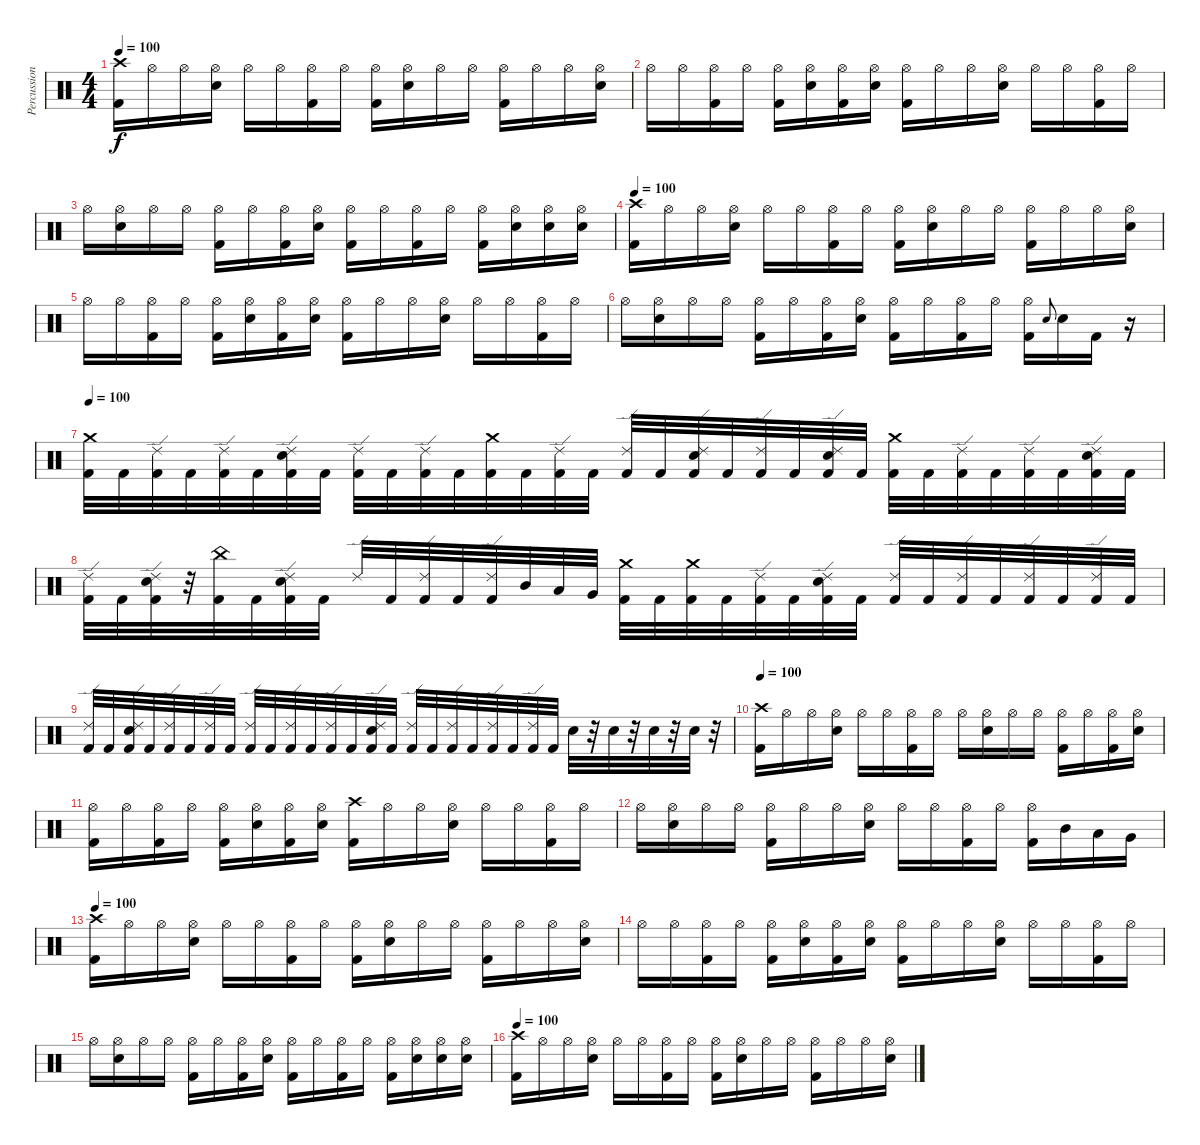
\track ("Percussion" "Percussion") {instrument percussion}
\staff {score}
\articulation defaults
\ts (4 4)
\tempo 100
\clef neutral
\ks c
("Crash high (hit)" "Kick (hit) 2").16{dy f} "Hi-Hat (open)".16 "Hi-Hat (open)".16 ("Hi-Hat (open)" "Snare (hit) 2").16 "Hi-Hat (open)".16 "Hi-Hat (open)".16 ("Hi-Hat (open)" "Kick (hit) 2").16 "Hi-Hat (open)".16 ("Hi-Hat (open)" "Kick (hit) 2").16 ("Hi-Hat (open)" "Snare (hit) 2").16 "Hi-Hat (open)".16 "Hi-Hat (open)".16 ("Hi-Hat (open)" "Kick (hit) 2").16 "Hi-Hat (open)".16 "Hi-Hat (open)".16 ("Hi-Hat (open)" "Snare (hit) 2").16 |
"Hi-Hat (open)".16 "Hi-Hat (open)".16 ("Hi-Hat (open)" "Kick (hit) 2").16 "Hi-Hat (open)".16 ("Hi-Hat (open)" "Kick (hit) 2").16 ("Hi-Hat (open)" "Snare (hit) 2").16 ("Hi-Hat (open)" "Kick (hit) 2").16 ("Hi-Hat (open)" "Snare (hit) 2").16 ("Hi-Hat (open)" "Kick (hit) 2").16 "Hi-Hat (open)".16 "Hi-Hat (open)".16 ("Hi-Hat (open)" "Snare (hit) 2").16 "Hi-Hat (open)".16 "Hi-Hat (open)".16 ("Hi-Hat (open)" "Kick (hit) 2").16 "Hi-Hat (open)".16 |
"Hi-Hat (open)".16 ("Hi-Hat (open)" "Snare (hit) 2").16 "Hi-Hat (open)".16 "Hi-Hat (open)".16 ("Hi-Hat (open)" "Kick (hit) 2").16 "Hi-Hat (open)".16 ("Hi-Hat (open)" "Kick (hit) 2").16 ("Hi-Hat (open)" "Snare (hit) 2").16 ("Hi-Hat (open)" "Kick (hit) 2").16 "Hi-Hat (open)".16 ("Hi-Hat (open)" "Kick (hit) 2").16 "Hi-Hat (open)".16 ("Hi-Hat (open)" "Kick (hit) 2").16 ("Hi-Hat (open)" "Snare (hit) 2").16 ("Hi-Hat (open)" "Snare (hit) 2").16 ("Hi-Hat (open)" "Snare (hit) 2").16 |
\tempo 100
("Crash high (hit)" "Kick (hit) 2").16 "Hi-Hat (open)".16 "Hi-Hat (open)".16 ("Hi-Hat (open)" "Snare (hit) 2").16 "Hi-Hat (open)".16 "Hi-Hat (open)".16 ("Hi-Hat (open)" "Kick (hit) 2").16 "Hi-Hat (open)".16 ("Hi-Hat (open)" "Kick (hit) 2").16 ("Hi-Hat (open)" "Snare (hit) 2").16 "Hi-Hat (open)".16 "Hi-Hat (open)".16 ("Hi-Hat (open)" "Kick (hit) 2").16 "Hi-Hat (open)".16 "Hi-Hat (open)".16 ("Hi-Hat (open)" "Snare (hit) 2").16 |
"Hi-Hat (open)".16 "Hi-Hat (open)".16 ("Hi-Hat (open)" "Kick (hit) 2").16 "Hi-Hat (open)".16 ("Hi-Hat (open)" "Kick (hit) 2").16 ("Hi-Hat (open)" "Snare (hit) 2").16 ("Hi-Hat (open)" "Kick (hit) 2").16 ("Hi-Hat (open)" "Snare (hit) 2").16 ("Hi-Hat (open)" "Kick (hit) 2").16 "Hi-Hat (open)".16 "Hi-Hat (open)".16 ("Hi-Hat (open)" "Snare (hit) 2").16 "Hi-Hat (open)".16 "Hi-Hat (open)".16 ("Hi-Hat (open)" "Kick (hit) 2").16 "Hi-Hat (open)".16 |
"Hi-Hat (open)".16 ("Hi-Hat (open)" "Snare (hit) 2").16 "Hi-Hat (open)".16 "Hi-Hat (open)".16 ("Hi-Hat (open)" "Kick (hit) 2").16 "Hi-Hat (open)".16 ("Hi-Hat (open)" "Kick (hit) 2").16 ("Hi-Hat (open)" "Snare (hit) 2").16 ("Hi-Hat (open)" "Kick (hit) 2").16 "Hi-Hat (open)".16 ("Hi-Hat (open)" "Kick (hit) 2").16 "Hi-Hat (open)".16 ("Hi-Hat (open)" "Kick (hit) 2").16 "Snare (hit) 2".8{gr onbeat} "Snare (hit) 2".16 "Kick (hit) 2".16 r.16 |
\tempo 100
("Crash medium (hit)" "Kick (hit) 2").32 "Kick (hit) 2".32 ("Ride (edge) 2" "Kick (hit) 2").32 "Kick (hit) 2".32 ("Ride (edge) 2" "Kick (hit) 2").32 "Kick (hit) 2".32 ("Ride (edge) 2" "Snare (hit) 2" "Kick (hit) 2").32 "Kick (hit) 2".32 ("Ride (edge) 2" "Kick (hit) 2").32 "Kick (hit) 2".32 ("Ride (edge) 2" "Kick (hit) 2").32 "Kick (hit) 2".32 ("Crash medium (hit)" "Kick (hit) 2").32 "Kick (hit) 2".32 ("Ride (edge) 2" "Kick (hit) 2").32 "Kick (hit) 2".32 ("Ride (edge) 2" "Kick (hit) 2").32 "Kick (hit) 2".32 ("Ride (edge) 2" "Snare (hit) 2" "Kick (hit) 2").32 "Kick (hit) 2".32 ("Ride (edge) 2" "Kick (hit) 2").32 "Kick (hit) 2".32 ("Ride (edge) 2" "Snare (hit) 2" "Kick (hit) 2").32 "Kick (hit) 2".32 ("Crash medium (hit)" "Kick (hit) 2").32 "Kick (hit) 2".32 ("Ride (edge) 2" "Kick (hit) 2").32 "Kick (hit) 2".32 ("Ride (edge) 2" "Kick (hit) 2").32 "Kick (hit) 2".32 ("Ride (edge) 2" "Snare (hit) 2" "Kick (hit) 2").32 "Kick (hit) 2".32 |
("Ride (edge) 2" "Kick (hit) 2").32 "Kick (hit) 2".32 ("Ride (edge) 2" "Snare (hit) 2" "Kick (hit) 2").32 r.32 ("China (hit)" "Kick (hit) 2").32 "Kick (hit) 2".32 ("Ride (edge) 2" "Snare (hit) 2" "Kick (hit) 2").32 "Kick (hit) 2".32 "Ride (edge) 2".32 "Kick (hit) 2".32 ("Ride (edge) 2" "Kick (hit) 2").32 "Kick (hit) 2".32 ("Ride (edge) 2" "Kick (hit) 2").32 "Mid Tom (hit)".32 "Low Tom (hit)".32 "Very Low Tom (hit)".32 ("Crash medium (hit)" "Kick (hit) 2").32 "Kick (hit) 2".32 ("Crash medium (hit)" "Kick (hit) 2").32 "Kick (hit) 2".32 ("Ride (edge) 2" "Kick (hit) 2").32 "Kick (hit) 2".32 ("Ride (edge) 2" "Snare (hit) 2" "Kick (hit) 2").32 "Kick (hit) 2".32 ("Ride (edge) 2" "Kick (hit) 2").32 "Kick (hit) 2".32 ("Ride (edge) 2" "Kick (hit) 2").32 "Kick (hit) 2".32 ("Ride (edge) 2" "Kick (hit) 2").32 "Kick (hit) 2".32 ("Ride (edge) 2" "Kick (hit) 2").32 "Kick (hit) 2".32 |
("Ride (edge) 2" "Kick (hit) 2").32 "Kick (hit) 2".32 ("Ride (edge) 2" "Snare (hit) 2" "Kick (hit) 2").32 "Kick (hit) 2".32 ("Ride (edge) 2" "Kick (hit) 2").32 "Kick (hit) 2".32 ("Ride (edge) 2" "Kick (hit) 2").32 "Kick (hit) 2".32 ("Ride (edge) 2" "Kick (hit) 2").32 "Kick (hit) 2".32 ("Ride (edge) 2" "Kick (hit) 2").32 "Kick (hit) 2".32 ("Ride (edge) 2" "Kick (hit) 2").32 "Kick (hit) 2".32 ("Ride (edge) 2" "Snare (hit) 2" "Kick (hit) 2").32 "Kick (hit) 2".32 ("Ride (edge) 2" "Kick (hit) 2").32 "Kick (hit) 2".32 ("Ride (edge) 2" "Kick (hit) 2").32 "Kick (hit) 2".32 ("Ride (edge) 2" "Kick (hit) 2").32 "Kick (hit) 2".32 ("Ride (edge) 2" "Kick (hit) 2").32 "Kick (hit) 2".32 "Snare (hit) 2".32 r.32 "Snare (hit) 2".32 r.32 "Snare (hit) 2".32 r.32 "Snare (hit) 2".32 r.32 |
\tempo 100
("Crash high (hit)" "Kick (hit) 2").16 "Hi-Hat (open)".16 "Hi-Hat (open)".16 ("Hi-Hat (open)" "Snare (hit) 2").16 "Hi-Hat (open)".16 "Hi-Hat (open)".16 ("Hi-Hat (open)" "Kick (hit) 2").16 "Hi-Hat (open)".16 "Hi-Hat (open)".16 ("Hi-Hat (open)" "Snare (hit) 2").16 "Hi-Hat (open)".16 "Hi-Hat (open)".16 ("Hi-Hat (open)" "Kick (hit) 2").16 "Hi-Hat (open)".16 ("Hi-Hat (open)" "Kick (hit) 2").16 ("Hi-Hat (open)" "Snare (hit) 2").16 |
("Hi-Hat (open)" "Kick (hit) 2").16 "Hi-Hat (open)".16 ("Hi-Hat (open)" "Kick (hit) 2").16 "Hi-Hat (open)".16 ("Hi-Hat (open)" "Kick (hit) 2").16 ("Hi-Hat (open)" "Snare (hit) 2").16 ("Hi-Hat (open)" "Kick (hit) 2").16 ("Hi-Hat (open)" "Snare (hit) 2").16 ("Crash high (hit)" "Kick (hit) 2").16 "Hi-Hat (open)".16 "Hi-Hat (open)".16 ("Hi-Hat (open)" "Snare (hit) 2").16 "Hi-Hat (open)".16 "Hi-Hat (open)".16 ("Hi-Hat (open)" "Kick (hit) 2").16 "Hi-Hat (open)".16 |
"Hi-Hat (open)".16 ("Hi-Hat (open)" "Snare (hit) 2").16 "Hi-Hat (open)".16 "Hi-Hat (open)".16 ("Hi-Hat (open)" "Kick (hit) 2").16 "Hi-Hat (open)".16 "Hi-Hat (open)".16 ("Hi-Hat (open)" "Snare (hit) 2").16 "Hi-Hat (open)".16 "Hi-Hat (open)".16 ("Hi-Hat (open)" "Kick (hit) 2").16 "Hi-Hat (open)".16 ("Hi-Hat (open)" "Kick (hit) 2").16 "Mid Tom (hit)".16 "Low Tom (hit)".16 "Very Low Tom (hit)".16 |
\tempo 100
("Crash high (hit)" "Kick (hit) 2").16 "Hi-Hat (open)".16 "Hi-Hat (open)".16 ("Hi-Hat (open)" "Snare (hit) 2").16 "Hi-Hat (open)".16 "Hi-Hat (open)".16 ("Hi-Hat (open)" "Kick (hit) 2").16 "Hi-Hat (open)".16 ("Hi-Hat (open)" "Kick (hit) 2").16 ("Hi-Hat (open)" "Snare (hit) 2").16 "Hi-Hat (open)".16 "Hi-Hat (open)".16 ("Hi-Hat (open)" "Kick (hit) 2").16 "Hi-Hat (open)".16 "Hi-Hat (open)".16 ("Hi-Hat (open)" "Snare (hit) 2").16 |
"Hi-Hat (open)".16 "Hi-Hat (open)".16 ("Hi-Hat (open)" "Kick (hit) 2").16 "Hi-Hat (open)".16 ("Hi-Hat (open)" "Kick (hit) 2").16 ("Hi-Hat (open)" "Snare (hit) 2").16 ("Hi-Hat (open)" "Kick (hit) 2").16 ("Hi-Hat (open)" "Snare (hit) 2").16 ("Hi-Hat (open)" "Kick (hit) 2").16 "Hi-Hat (open)".16 "Hi-Hat (open)".16 ("Hi-Hat (open)" "Snare (hit) 2").16 "Hi-Hat (open)".16 "Hi-Hat (open)".16 ("Hi-Hat (open)" "Kick (hit) 2").16 "Hi-Hat (open)".16 |
"Hi-Hat (open)".16 ("Hi-Hat (open)" "Snare (hit) 2").16 "Hi-Hat (open)".16 "Hi-Hat (open)".16 ("Hi-Hat (open)" "Kick (hit) 2").16 "Hi-Hat (open)".16 ("Hi-Hat (open)" "Kick (hit) 2").16 ("Hi-Hat (open)" "Snare (hit) 2").16 ("Hi-Hat (open)" "Kick (hit) 2").16 "Hi-Hat (open)".16 ("Hi-Hat (open)" "Kick (hit) 2").16 "Hi-Hat (open)".16 ("Hi-Hat (open)" "Kick (hit) 2").16 ("Hi-Hat (open)" "Snare (hit) 2").16 ("Hi-Hat (open)" "Snare (hit) 2").16 ("Hi-Hat (open)" "Snare (hit) 2").16 |
\tempo 100
("Crash high (hit)" "Kick (hit) 2").16 "Hi-Hat (open)".16 "Hi-Hat (open)".16 ("Hi-Hat (open)" "Snare (hit) 2").16 "Hi-Hat (open)".16 "Hi-Hat (open)".16 ("Hi-Hat (open)" "Kick (hit) 2").16 "Hi-Hat (open)".16 ("Hi-Hat (open)" "Kick (hit) 2").16 ("Hi-Hat (open)" "Snare (hit) 2").16 "Hi-Hat (open)".16 "Hi-Hat (open)".16 ("Hi-Hat (open)" "Kick (hit) 2").16 "Hi-Hat (open)".16 "Hi-Hat (open)".16 ("Hi-Hat (open)" "Snare (hit) 2").16
